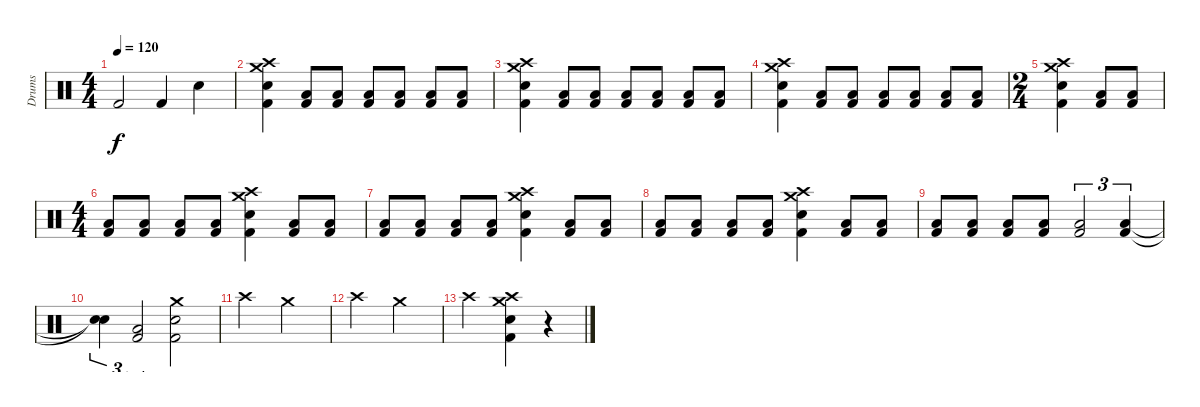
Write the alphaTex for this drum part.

\track ("Drums" "Drums") {instrument percussion}
\staff {score}
\articulation defaults
\ts (4 4)
\tempo 120
\clef neutral
\ks c "Kick (hit) 2".2{dy f} "Kick (hit) 2".4 "Snare (hit) 2".4
|
("Crash high (hit)" "Crash medium (hit)" "Kick (hit) 2" "Snare (hit) 2").4 ("Low Floor Tom (hit)" "Kick (hit) 2").8 ("Low Floor Tom (hit)" "Kick (hit) 2").8 ("Low Floor Tom (hit)" "Kick (hit) 2").8 ("Low Floor Tom (hit)" "Kick (hit) 2").8 ("Low Floor Tom (hit)" "Kick (hit) 2").8 ("Low Floor Tom (hit)" "Kick (hit) 2").8 |
("Kick (hit) 2" "Snare (hit) 2" "Crash medium (hit)" "Crash high (hit)").4 ("Kick (hit) 2" "Low Floor Tom (hit)").8 ("Kick (hit) 2" "Low Floor Tom (hit)").8 ("Kick (hit) 2" "Low Floor Tom (hit)").8 ("Low Floor Tom (hit)" "Kick (hit) 2").8 ("Kick (hit) 2" "Low Floor Tom (hit)").8 ("Kick (hit) 2" "Low Floor Tom (hit)").8 |
("Kick (hit) 2" "Snare (hit) 2" "Crash high (hit)" "Crash medium (hit)").4 ("Kick (hit) 2" "Low Floor Tom (hit)").8 ("Kick (hit) 2" "Low Floor Tom (hit)").8 ("Kick (hit) 2" "Low Floor Tom (hit)").8 ("Kick (hit) 2" "Low Floor Tom (hit)").8 ("Kick (hit) 2" "Low Floor Tom (hit)").8 ("Kick (hit) 2" "Low Floor Tom (hit)").8 |
\ts (2 4)
("Kick (hit) 2" "Snare (hit) 2" "Crash high (hit)" "Crash medium (hit)").4 ("Kick (hit) 2" "Low Floor Tom (hit)").8 ("Kick (hit) 2" "Low Floor Tom (hit)").8 |
\ts (4 4)
("Kick (hit) 2" "Low Floor Tom (hit)").8 ("Kick (hit) 2" "Low Floor Tom (hit)").8 ("Kick (hit) 2" "Low Floor Tom (hit)").8 ("Kick (hit) 2" "Low Floor Tom (hit)").8 ("Kick (hit) 2" "Snare (hit) 2" "Crash medium (hit)" "Crash high (hit)").4 ("Kick (hit) 2" "Low Floor Tom (hit)").8 ("Kick (hit) 2" "Low Floor Tom (hit)").8 |
("Kick (hit) 2" "Low Floor Tom (hit)").8 ("Kick (hit) 2" "Low Floor Tom (hit)").8 ("Kick (hit) 2" "Low Floor Tom (hit)").8 ("Kick (hit) 2" "Low Floor Tom (hit)").8 ("Snare (hit) 2" "Crash high (hit)" "Crash medium (hit)" "Kick (hit) 2").4 ("Kick (hit) 2" "Low Floor Tom (hit)").8 ("Kick (hit) 2" "Low Floor Tom (hit)").8 |
("Kick (hit) 2" "Low Floor Tom (hit)").8 ("Kick (hit) 2" "Low Floor Tom (hit)").8 ("Kick (hit) 2" "Low Floor Tom (hit)").8 ("Kick (hit) 2" "Low Floor Tom (hit)").8 ("Kick (hit) 2" "Snare (hit) 2" "Crash high (hit)" "Crash medium (hit)").4 ("Kick (hit) 2" "Low Floor Tom (hit)").8 ("Kick (hit) 2" "Low Floor Tom (hit)").8 |
("Kick (hit) 2" "Low Floor Tom (hit)").8 ("Kick (hit) 2" "Low Floor Tom (hit)").8 ("Kick (hit) 2" "Low Floor Tom (hit)").8 ("Kick (hit) 2" "Low Floor Tom (hit)").8 ("Low Floor Tom (hit)" "Kick (hit) 2").2{tu (3 2)} ("Low Floor Tom (hit)" "Kick (hit) 2").4{tu (3 2)} |
("Snare (hit)"{t} "Snare (hit)"{t}).4{tu (3 2)} ("Low Floor Tom (hit)" "Kick (hit) 2").2{tu (3 2)} ("Crash medium (hit)" "Snare (hit) 2" "Kick (hit) 2").2 |
"Crash high (hit)".2 "Crash medium (hit)".2 |
"Crash high (hit)".2 "Crash medium (hit)".2 |
"Crash high (hit)".2 ("Crash medium (hit)" "Crash high (hit)" "Snare (hit) 2" "Kick (hit) 2").4 r.4
